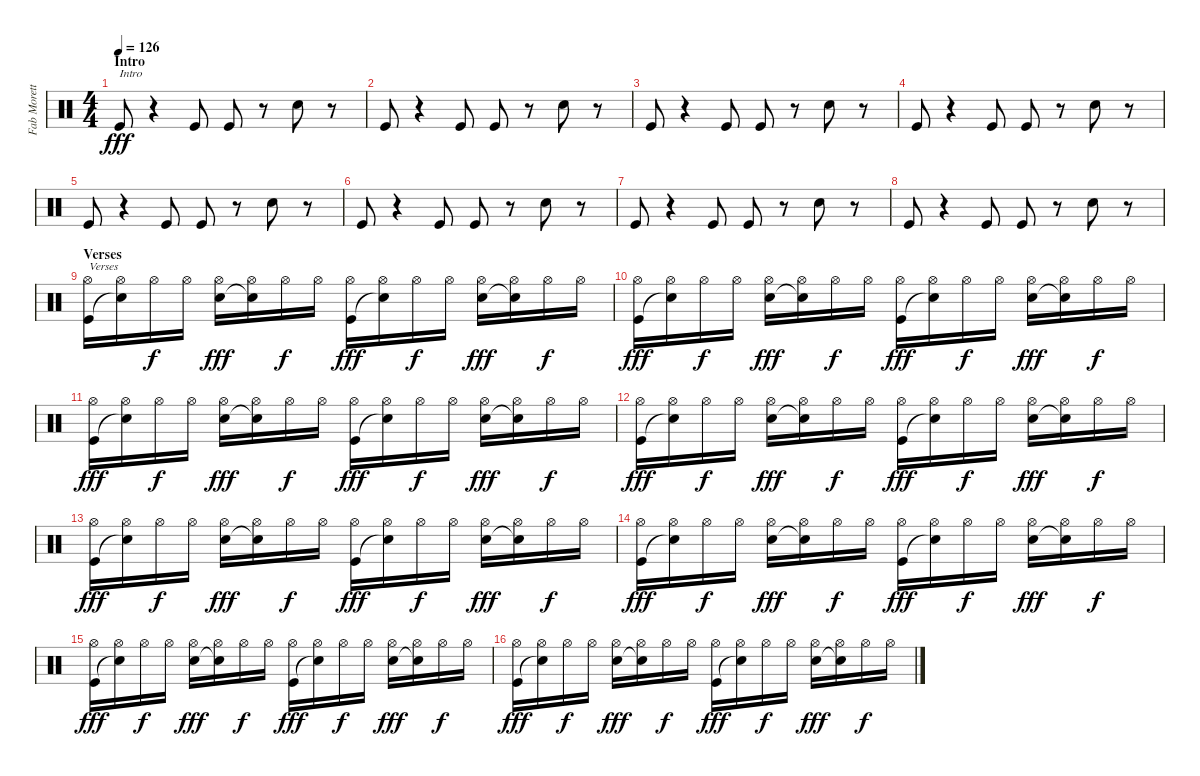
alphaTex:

\track ("Fab Moretti" "Fab Morett") {instrument percussion}
\staff {score}
\articulation defaults
\ts (4 4)
\section ("" "Intro")
\tempo 126
\clef neutral
\ks c "Kick (hit)".8{txt "Intro" dy fff}
r.4 "Kick (hit)".8 "Kick (hit)".8 r.8 "Snare (hit) 2".8 r.8 |
"Kick (hit)".8 r.4 "Kick (hit)".8 "Kick (hit)".8 r.8 "Snare (hit) 2".8 r.8 |
"Kick (hit)".8 r.4 "Kick (hit)".8 "Kick (hit)".8 r.8 "Snare (hit) 2".8 r.8 |
"Kick (hit)".8 r.4 "Kick (hit)".8 "Kick (hit)".8 r.8 "Snare (hit) 2".8 r.8 |
"Kick (hit)".8 r.4 "Kick (hit)".8 "Kick (hit)".8 r.8 "Snare (hit) 2".8 r.8 |
"Kick (hit)".8 r.4 "Kick (hit)".8 "Kick (hit)".8 r.8 "Snare (hit) 2".8 r.8 |
"Kick (hit)".8 r.4 "Kick (hit)".8 "Kick (hit)".8 r.8 "Snare (hit) 2".8 r.8 |
"Kick (hit)".8 r.4 "Kick (hit)".8 "Kick (hit)".8 r.8 "Snare (hit) 2".8 r.8 |
\section ("" "Verses")
("Hi-Hat (open)" "Kick (hit)").16{txt "Verses"} ("Hi-Hat (open)" "Snare (hit)"{t}).16 "Hi-Hat (open)".16{dy f} "Hi-Hat (open)".16 ("Hi-Hat (open)" "Snare (hit) 2").16{dy fff} ("Hi-Hat (open)" "Snare (hit)"{t}).16 "Hi-Hat (open)".16{dy f} "Hi-Hat (open)".16 ("Hi-Hat (open)" "Kick (hit)").16{dy fff} ("Hi-Hat (open)" "Snare (hit)"{t}).16 "Hi-Hat (open)".16{dy f} "Hi-Hat (open)".16 ("Hi-Hat (open)" "Snare (hit) 2").16{dy fff} ("Hi-Hat (open)" "Snare (hit)"{t}).16 "Hi-Hat (open)".16{dy f} "Hi-Hat (open)".16 |
("Hi-Hat (open)" "Kick (hit)").16{dy fff} ("Hi-Hat (open)" "Snare (hit)"{t}).16 "Hi-Hat (open)".16{dy f} "Hi-Hat (open)".16 ("Hi-Hat (open)" "Snare (hit) 2").16{dy fff} ("Hi-Hat (open)" "Snare (hit)"{t}).16 "Hi-Hat (open)".16{dy f} "Hi-Hat (open)".16 ("Hi-Hat (open)" "Kick (hit)").16{dy fff} ("Hi-Hat (open)" "Snare (hit)"{t}).16 "Hi-Hat (open)".16{dy f} "Hi-Hat (open)".16 ("Hi-Hat (open)" "Snare (hit) 2").16{dy fff} ("Hi-Hat (open)" "Snare (hit)"{t}).16 "Hi-Hat (open)".16{dy f} "Hi-Hat (open)".16 |
("Hi-Hat (open)" "Kick (hit)").16{dy fff} ("Hi-Hat (open)" "Snare (hit)"{t}).16 "Hi-Hat (open)".16{dy f} "Hi-Hat (open)".16 ("Hi-Hat (open)" "Snare (hit) 2").16{dy fff} ("Hi-Hat (open)" "Snare (hit)"{t}).16 "Hi-Hat (open)".16{dy f} "Hi-Hat (open)".16 ("Hi-Hat (open)" "Kick (hit)").16{dy fff} ("Hi-Hat (open)" "Snare (hit)"{t}).16 "Hi-Hat (open)".16{dy f} "Hi-Hat (open)".16 ("Hi-Hat (open)" "Snare (hit) 2").16{dy fff} ("Hi-Hat (open)" "Snare (hit)"{t}).16 "Hi-Hat (open)".16{dy f} "Hi-Hat (open)".16 |
("Hi-Hat (open)" "Kick (hit)").16{dy fff} ("Hi-Hat (open)" "Snare (hit)"{t}).16 "Hi-Hat (open)".16{dy f} "Hi-Hat (open)".16 ("Hi-Hat (open)" "Snare (hit) 2").16{dy fff} ("Hi-Hat (open)" "Snare (hit)"{t}).16 "Hi-Hat (open)".16{dy f} "Hi-Hat (open)".16 ("Hi-Hat (open)" "Kick (hit)").16{dy fff} ("Hi-Hat (open)" "Snare (hit)"{t}).16 "Hi-Hat (open)".16{dy f} "Hi-Hat (open)".16 ("Hi-Hat (open)" "Snare (hit) 2").16{dy fff} ("Hi-Hat (open)" "Snare (hit)"{t}).16 "Hi-Hat (open)".16{dy f} "Hi-Hat (open)".16 |
("Hi-Hat (open)" "Kick (hit)").16{dy fff} ("Hi-Hat (open)" "Snare (hit)"{t}).16 "Hi-Hat (open)".16{dy f} "Hi-Hat (open)".16 ("Hi-Hat (open)" "Snare (hit) 2").16{dy fff} ("Hi-Hat (open)" "Snare (hit)"{t}).16 "Hi-Hat (open)".16{dy f} "Hi-Hat (open)".16 ("Hi-Hat (open)" "Kick (hit)").16{dy fff} ("Hi-Hat (open)" "Snare (hit)"{t}).16 "Hi-Hat (open)".16{dy f} "Hi-Hat (open)".16 ("Hi-Hat (open)" "Snare (hit) 2").16{dy fff} ("Hi-Hat (open)" "Snare (hit)"{t}).16 "Hi-Hat (open)".16{dy f} "Hi-Hat (open)".16 |
("Hi-Hat (open)" "Kick (hit)").16{dy fff} ("Hi-Hat (open)" "Snare (hit)"{t}).16 "Hi-Hat (open)".16{dy f} "Hi-Hat (open)".16 ("Hi-Hat (open)" "Snare (hit) 2").16{dy fff} ("Hi-Hat (open)" "Snare (hit)"{t}).16 "Hi-Hat (open)".16{dy f} "Hi-Hat (open)".16 ("Hi-Hat (open)" "Kick (hit)").16{dy fff} ("Hi-Hat (open)" "Snare (hit)"{t}).16 "Hi-Hat (open)".16{dy f} "Hi-Hat (open)".16 ("Hi-Hat (open)" "Snare (hit) 2").16{dy fff} ("Hi-Hat (open)" "Snare (hit)"{t}).16 "Hi-Hat (open)".16{dy f} "Hi-Hat (open)".16 |
("Hi-Hat (open)" "Kick (hit)").16{dy fff} ("Hi-Hat (open)" "Snare (hit)"{t}).16 "Hi-Hat (open)".16{dy f} "Hi-Hat (open)".16 ("Hi-Hat (open)" "Snare (hit) 2").16{dy fff} ("Hi-Hat (open)" "Snare (hit)"{t}).16 "Hi-Hat (open)".16{dy f} "Hi-Hat (open)".16 ("Hi-Hat (open)" "Kick (hit)").16{dy fff} ("Hi-Hat (open)" "Snare (hit)"{t}).16 "Hi-Hat (open)".16{dy f} "Hi-Hat (open)".16 ("Hi-Hat (open)" "Snare (hit) 2").16{dy fff} ("Hi-Hat (open)" "Snare (hit)"{t}).16 "Hi-Hat (open)".16{dy f} "Hi-Hat (open)".16 |
("Hi-Hat (open)" "Kick (hit)").16{dy fff} ("Hi-Hat (open)" "Snare (hit)"{t}).16 "Hi-Hat (open)".16{dy f} "Hi-Hat (open)".16 ("Hi-Hat (open)" "Snare (hit) 2").16{dy fff} ("Hi-Hat (open)" "Snare (hit)"{t}).16 "Hi-Hat (open)".16{dy f} "Hi-Hat (open)".16 ("Hi-Hat (open)" "Kick (hit)").16{dy fff} ("Hi-Hat (open)" "Snare (hit)"{t}).16 "Hi-Hat (open)".16{dy f} "Hi-Hat (open)".16 ("Hi-Hat (open)" "Snare (hit) 2").16{dy fff} ("Hi-Hat (open)" "Snare (hit)"{t}).16 "Hi-Hat (open)".16{dy f} "Hi-Hat (open)".16
